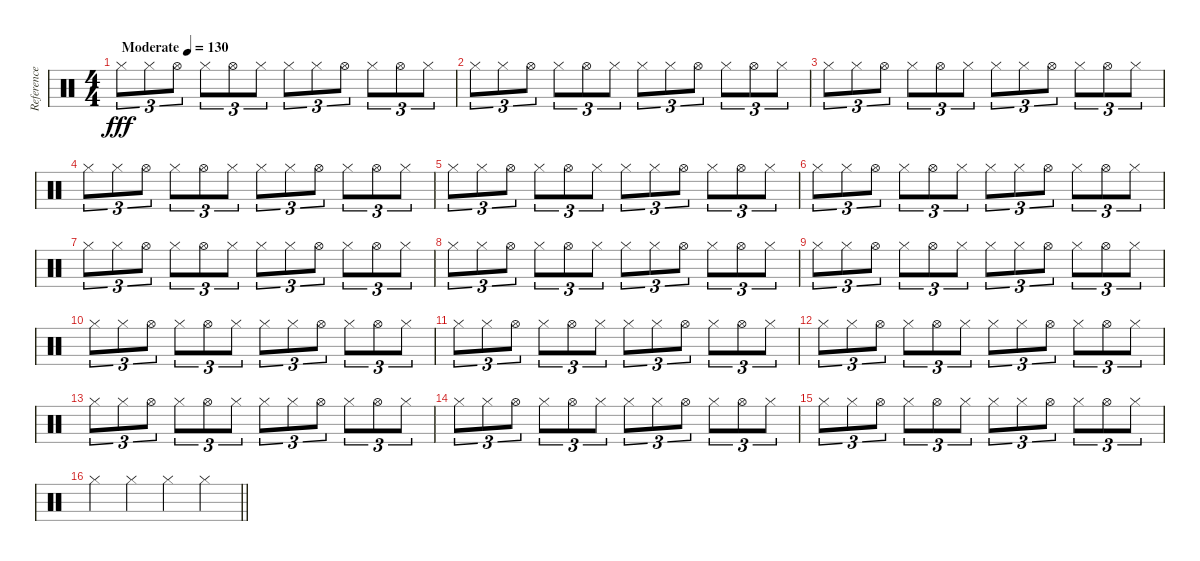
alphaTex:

\track ("Reference metronome" "Reference ") {instrument percussion}
\staff {score}
\articulation defaults
\ts (4 4)
\tempo (130 "Moderate")
\clef neutral
\ks c "Hi-Hat (closed)".8{tu (3 2) dy fff} "Hi-Hat (closed)".8{tu (3 2)} "Hi-Hat (open)".8{tu (3 2)} "Hi-Hat (closed)".8{tu (3 2)} "Hi-Hat (open)".8{tu (3 2)} "Hi-Hat (closed)".8{tu (3 2)} "Hi-Hat (closed)".8{tu (3 2)} "Hi-Hat (closed)".8{tu (3 2)} "Hi-Hat (open)".8{tu (3 2)} "Hi-Hat (closed)".8{tu (3 2)} "Hi-Hat (open)".8{tu (3 2)} "Hi-Hat (closed)".8{tu (3 2)}
|
"Hi-Hat (closed)".8{tu (3 2)} "Hi-Hat (closed)".8{tu (3 2)} "Hi-Hat (open)".8{tu (3 2)} "Hi-Hat (closed)".8{tu (3 2)} "Hi-Hat (open)".8{tu (3 2)} "Hi-Hat (closed)".8{tu (3 2)} "Hi-Hat (closed)".8{tu (3 2)} "Hi-Hat (closed)".8{tu (3 2)} "Hi-Hat (open)".8{tu (3 2)} "Hi-Hat (closed)".8{tu (3 2)} "Hi-Hat (open)".8{tu (3 2)} "Hi-Hat (closed)".8{tu (3 2)} |
"Hi-Hat (closed)".8{tu (3 2)} "Hi-Hat (closed)".8{tu (3 2)} "Hi-Hat (open)".8{tu (3 2)} "Hi-Hat (closed)".8{tu (3 2)} "Hi-Hat (open)".8{tu (3 2)} "Hi-Hat (closed)".8{tu (3 2)} "Hi-Hat (closed)".8{tu (3 2)} "Hi-Hat (closed)".8{tu (3 2)} "Hi-Hat (open)".8{tu (3 2)} "Hi-Hat (closed)".8{tu (3 2)} "Hi-Hat (open)".8{tu (3 2)} "Hi-Hat (closed)".8{tu (3 2)} |
"Hi-Hat (closed)".8{tu (3 2)} "Hi-Hat (closed)".8{tu (3 2)} "Hi-Hat (open)".8{tu (3 2)} "Hi-Hat (closed)".8{tu (3 2)} "Hi-Hat (open)".8{tu (3 2)} "Hi-Hat (closed)".8{tu (3 2)} "Hi-Hat (closed)".8{tu (3 2)} "Hi-Hat (closed)".8{tu (3 2)} "Hi-Hat (open)".8{tu (3 2)} "Hi-Hat (closed)".8{tu (3 2)} "Hi-Hat (open)".8{tu (3 2)} "Hi-Hat (closed)".8{tu (3 2)} |
"Hi-Hat (closed)".8{tu (3 2)} "Hi-Hat (closed)".8{tu (3 2)} "Hi-Hat (open)".8{tu (3 2)} "Hi-Hat (closed)".8{tu (3 2)} "Hi-Hat (open)".8{tu (3 2)} "Hi-Hat (closed)".8{tu (3 2)} "Hi-Hat (closed)".8{tu (3 2)} "Hi-Hat (closed)".8{tu (3 2)} "Hi-Hat (open)".8{tu (3 2)} "Hi-Hat (closed)".8{tu (3 2)} "Hi-Hat (open)".8{tu (3 2)} "Hi-Hat (closed)".8{tu (3 2)} |
"Hi-Hat (closed)".8{tu (3 2)} "Hi-Hat (closed)".8{tu (3 2)} "Hi-Hat (open)".8{tu (3 2)} "Hi-Hat (closed)".8{tu (3 2)} "Hi-Hat (open)".8{tu (3 2)} "Hi-Hat (closed)".8{tu (3 2)} "Hi-Hat (closed)".8{tu (3 2)} "Hi-Hat (closed)".8{tu (3 2)} "Hi-Hat (open)".8{tu (3 2)} "Hi-Hat (closed)".8{tu (3 2)} "Hi-Hat (open)".8{tu (3 2)} "Hi-Hat (closed)".8{tu (3 2)} |
"Hi-Hat (closed)".8{tu (3 2)} "Hi-Hat (closed)".8{tu (3 2)} "Hi-Hat (open)".8{tu (3 2)} "Hi-Hat (closed)".8{tu (3 2)} "Hi-Hat (open)".8{tu (3 2)} "Hi-Hat (closed)".8{tu (3 2)} "Hi-Hat (closed)".8{tu (3 2)} "Hi-Hat (closed)".8{tu (3 2)} "Hi-Hat (open)".8{tu (3 2)} "Hi-Hat (closed)".8{tu (3 2)} "Hi-Hat (open)".8{tu (3 2)} "Hi-Hat (closed)".8{tu (3 2)} |
"Hi-Hat (closed)".8{tu (3 2)} "Hi-Hat (closed)".8{tu (3 2)} "Hi-Hat (open)".8{tu (3 2)} "Hi-Hat (closed)".8{tu (3 2)} "Hi-Hat (open)".8{tu (3 2)} "Hi-Hat (closed)".8{tu (3 2)} "Hi-Hat (closed)".8{tu (3 2)} "Hi-Hat (closed)".8{tu (3 2)} "Hi-Hat (open)".8{tu (3 2)} "Hi-Hat (closed)".8{tu (3 2)} "Hi-Hat (open)".8{tu (3 2)} "Hi-Hat (closed)".8{tu (3 2)} |
"Hi-Hat (closed)".8{tu (3 2)} "Hi-Hat (closed)".8{tu (3 2)} "Hi-Hat (open)".8{tu (3 2)} "Hi-Hat (closed)".8{tu (3 2)} "Hi-Hat (open)".8{tu (3 2)} "Hi-Hat (closed)".8{tu (3 2)} "Hi-Hat (closed)".8{tu (3 2)} "Hi-Hat (closed)".8{tu (3 2)} "Hi-Hat (open)".8{tu (3 2)} "Hi-Hat (closed)".8{tu (3 2)} "Hi-Hat (open)".8{tu (3 2)} "Hi-Hat (closed)".8{tu (3 2)} |
"Hi-Hat (closed)".8{tu (3 2)} "Hi-Hat (closed)".8{tu (3 2)} "Hi-Hat (open)".8{tu (3 2)} "Hi-Hat (closed)".8{tu (3 2)} "Hi-Hat (open)".8{tu (3 2)} "Hi-Hat (closed)".8{tu (3 2)} "Hi-Hat (closed)".8{tu (3 2)} "Hi-Hat (closed)".8{tu (3 2)} "Hi-Hat (open)".8{tu (3 2)} "Hi-Hat (closed)".8{tu (3 2)} "Hi-Hat (open)".8{tu (3 2)} "Hi-Hat (closed)".8{tu (3 2)} |
"Hi-Hat (closed)".8{tu (3 2)} "Hi-Hat (closed)".8{tu (3 2)} "Hi-Hat (open)".8{tu (3 2)} "Hi-Hat (closed)".8{tu (3 2)} "Hi-Hat (open)".8{tu (3 2)} "Hi-Hat (closed)".8{tu (3 2)} "Hi-Hat (closed)".8{tu (3 2)} "Hi-Hat (closed)".8{tu (3 2)} "Hi-Hat (open)".8{tu (3 2)} "Hi-Hat (closed)".8{tu (3 2)} "Hi-Hat (open)".8{tu (3 2)} "Hi-Hat (closed)".8{tu (3 2)} |
"Hi-Hat (closed)".8{tu (3 2)} "Hi-Hat (closed)".8{tu (3 2)} "Hi-Hat (open)".8{tu (3 2)} "Hi-Hat (closed)".8{tu (3 2)} "Hi-Hat (open)".8{tu (3 2)} "Hi-Hat (closed)".8{tu (3 2)} "Hi-Hat (closed)".8{tu (3 2)} "Hi-Hat (closed)".8{tu (3 2)} "Hi-Hat (open)".8{tu (3 2)} "Hi-Hat (closed)".8{tu (3 2)} "Hi-Hat (open)".8{tu (3 2)} "Hi-Hat (closed)".8{tu (3 2)} |
"Hi-Hat (closed)".8{tu (3 2)} "Hi-Hat (closed)".8{tu (3 2)} "Hi-Hat (open)".8{tu (3 2)} "Hi-Hat (closed)".8{tu (3 2)} "Hi-Hat (open)".8{tu (3 2)} "Hi-Hat (closed)".8{tu (3 2)} "Hi-Hat (closed)".8{tu (3 2)} "Hi-Hat (closed)".8{tu (3 2)} "Hi-Hat (open)".8{tu (3 2)} "Hi-Hat (closed)".8{tu (3 2)} "Hi-Hat (open)".8{tu (3 2)} "Hi-Hat (closed)".8{tu (3 2)} |
"Hi-Hat (closed)".8{tu (3 2)} "Hi-Hat (closed)".8{tu (3 2)} "Hi-Hat (open)".8{tu (3 2)} "Hi-Hat (closed)".8{tu (3 2)} "Hi-Hat (open)".8{tu (3 2)} "Hi-Hat (closed)".8{tu (3 2)} "Hi-Hat (closed)".8{tu (3 2)} "Hi-Hat (closed)".8{tu (3 2)} "Hi-Hat (open)".8{tu (3 2)} "Hi-Hat (closed)".8{tu (3 2)} "Hi-Hat (open)".8{tu (3 2)} "Hi-Hat (closed)".8{tu (3 2)} |
"Hi-Hat (closed)".8{tu (3 2)} "Hi-Hat (closed)".8{tu (3 2)} "Hi-Hat (open)".8{tu (3 2)} "Hi-Hat (closed)".8{tu (3 2)} "Hi-Hat (open)".8{tu (3 2)} "Hi-Hat (closed)".8{tu (3 2)} "Hi-Hat (closed)".8{tu (3 2)} "Hi-Hat (closed)".8{tu (3 2)} "Hi-Hat (open)".8{tu (3 2)} "Hi-Hat (closed)".8{tu (3 2)} "Hi-Hat (open)".8{tu (3 2)} "Hi-Hat (closed)".8{tu (3 2)} |
\barLineRight lightlight "Hi-Hat (closed)".4 "Hi-Hat (closed)".4 "Hi-Hat (closed)".4 "Hi-Hat (closed)".4
